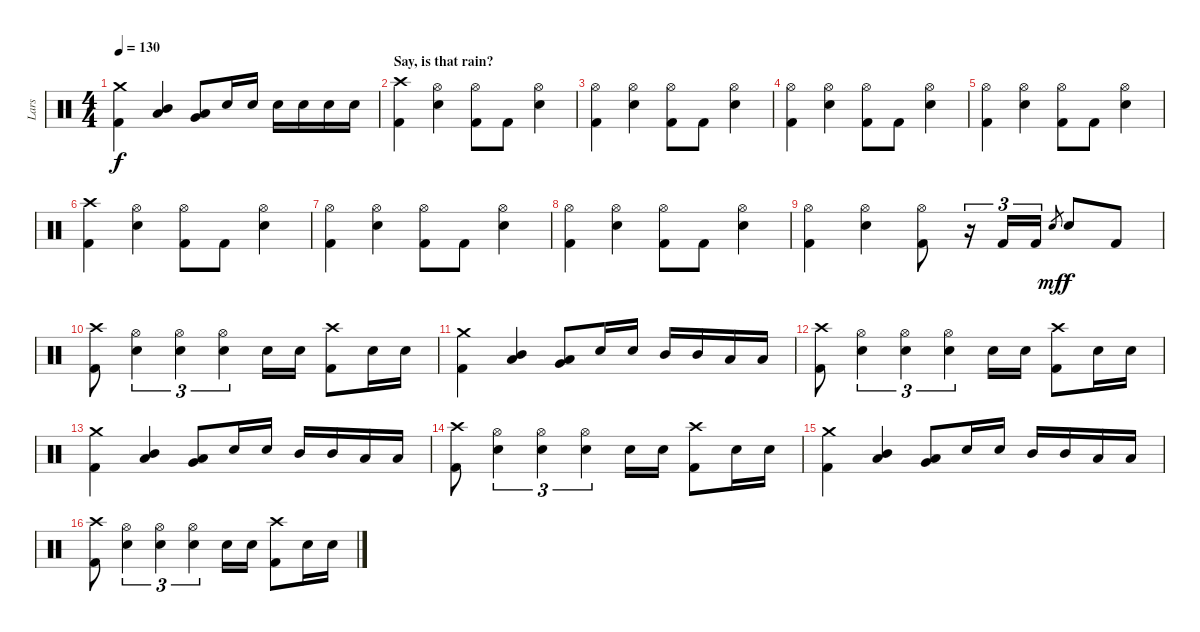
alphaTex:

\track ("Lars" "Lars") {instrument percussion}
\staff {score}
\articulation defaults
\ts (4 4)
\tempo 130
\clef neutral
\ks c
("Kick (hit) 2" "Crash medium (hit)").4{dy f} ("Mid Tom (hit)" "Low Tom (hit)").4{bu 120} ("Low Tom (hit)" "Very Low Tom (hit)").8{bu 120} "Electric Snare (hit)".16 "Electric Snare (hit)".16 "Electric Snare (hit)".16 "Electric Snare (hit)".16 "Electric Snare (hit)".16 "Electric Snare (hit)".16 |
\section ("" "Say, is that rain?")
("Kick (hit) 2" "Crash high (hit)").4 ("Electric Snare (hit)" "Hi-Hat (open)").4 ("Kick (hit) 2" "Hi-Hat (open)").8 "Kick (hit) 2".8 ("Electric Snare (hit)" "Hi-Hat (open)").4 |
("Kick (hit) 2" "Hi-Hat (open)").4 ("Electric Snare (hit)" "Hi-Hat (open)").4 ("Kick (hit) 2" "Hi-Hat (open)").8 "Kick (hit) 2".8 ("Electric Snare (hit)" "Hi-Hat (open)").4 |
("Kick (hit) 2" "Hi-Hat (open)").4 ("Electric Snare (hit)" "Hi-Hat (open)").4 ("Kick (hit) 2" "Hi-Hat (open)").8 "Kick (hit) 2".8 ("Electric Snare (hit)" "Hi-Hat (open)").4 |
("Kick (hit) 2" "Hi-Hat (open)").4 ("Electric Snare (hit)" "Hi-Hat (open)").4 ("Kick (hit) 2" "Hi-Hat (open)").8 "Kick (hit) 2".8 ("Electric Snare (hit)" "Hi-Hat (open)").4 |
("Kick (hit) 2" "Crash high (hit)").4 ("Electric Snare (hit)" "Hi-Hat (open)").4 ("Kick (hit) 2" "Hi-Hat (open)").8 "Kick (hit) 2".8 ("Electric Snare (hit)" "Hi-Hat (open)").4 |
("Kick (hit) 2" "Hi-Hat (open)").4 ("Electric Snare (hit)" "Hi-Hat (open)").4 ("Kick (hit) 2" "Hi-Hat (open)").8 "Kick (hit) 2".8 ("Electric Snare (hit)" "Hi-Hat (open)").4 |
("Kick (hit) 2" "Hi-Hat (open)").4 ("Electric Snare (hit)" "Hi-Hat (open)").4 ("Kick (hit) 2" "Hi-Hat (open)").8 "Kick (hit) 2".8 ("Electric Snare (hit)" "Hi-Hat (open)").4 |
("Kick (hit) 2" "Hi-Hat (open)").4 ("Electric Snare (hit)" "Hi-Hat (open)").4 ("Kick (hit) 2" "Hi-Hat (open)").8 r.16{tu (3 2)} "Kick (hit) 2".16{tu (3 2)} "Kick (hit) 2".16{tu (3 2)} "Electric Snare (hit)".8{gr dy mf} "Electric Snare (hit)".8{dy f} "Kick (hit) 2".8 |
\section ("" "")
("Kick (hit) 2" "Crash high (hit)").8 ("Electric Snare (hit)" "Hi-Hat (open)").4{tu (3 2)} ("Electric Snare (hit)" "Hi-Hat (open)").4{tu (3 2)} ("Electric Snare (hit)" "Hi-Hat (open)").4{tu (3 2)} "Electric Snare (hit)".16 "Electric Snare (hit)".16 ("Kick (hit) 2" "Crash high (hit)").8 "Electric Snare (hit)".16 "Electric Snare (hit)".16 |
("Kick (hit) 2" "Crash medium (hit)").4 ("Mid Tom (hit)" "Low Tom (hit)").4{bu 120} ("Low Tom (hit)" "Very Low Tom (hit)").8{bu 120} "Electric Snare (hit)".16 "Electric Snare (hit)".16 "Mid Tom (hit)".16 "Mid Tom (hit)".16 "Low Tom (hit)".16 "Low Tom (hit)".16 |
("Kick (hit) 2" "Crash high (hit)").8 ("Electric Snare (hit)" "Hi-Hat (open)").4{tu (3 2)} ("Electric Snare (hit)" "Hi-Hat (open)").4{tu (3 2)} ("Electric Snare (hit)" "Hi-Hat (open)").4{tu (3 2)} "Electric Snare (hit)".16 "Electric Snare (hit)".16 ("Kick (hit) 2" "Crash high (hit)").8 "Electric Snare (hit)".16 "Electric Snare (hit)".16 |
("Kick (hit) 2" "Crash medium (hit)").4 ("Mid Tom (hit)" "Low Tom (hit)").4{bu 120} ("Low Tom (hit)" "Very Low Tom (hit)").8{bu 120} "Electric Snare (hit)".16 "Electric Snare (hit)".16 "Mid Tom (hit)".16 "Mid Tom (hit)".16 "Low Tom (hit)".16 "Low Tom (hit)".16 |
("Kick (hit) 2" "Crash high (hit)").8 ("Electric Snare (hit)" "Hi-Hat (open)").4{tu (3 2)} ("Electric Snare (hit)" "Hi-Hat (open)").4{tu (3 2)} ("Electric Snare (hit)" "Hi-Hat (open)").4{tu (3 2)} "Electric Snare (hit)".16 "Electric Snare (hit)".16 ("Kick (hit) 2" "Crash high (hit)").8 "Electric Snare (hit)".16 "Electric Snare (hit)".16 |
("Kick (hit) 2" "Crash medium (hit)").4 ("Mid Tom (hit)" "Low Tom (hit)").4{bu 120} ("Low Tom (hit)" "Very Low Tom (hit)").8{bu 120} "Electric Snare (hit)".16 "Electric Snare (hit)".16 "Mid Tom (hit)".16 "Mid Tom (hit)".16 "Low Tom (hit)".16 "Low Tom (hit)".16 |
("Kick (hit) 2" "Crash high (hit)").8 ("Electric Snare (hit)" "Hi-Hat (open)").4{tu (3 2)} ("Electric Snare (hit)" "Hi-Hat (open)").4{tu (3 2)} ("Electric Snare (hit)" "Hi-Hat (open)").4{tu (3 2)} "Electric Snare (hit)".16 "Electric Snare (hit)".16 ("Kick (hit) 2" "Crash high (hit)").8 "Electric Snare (hit)".16 "Electric Snare (hit)".16
